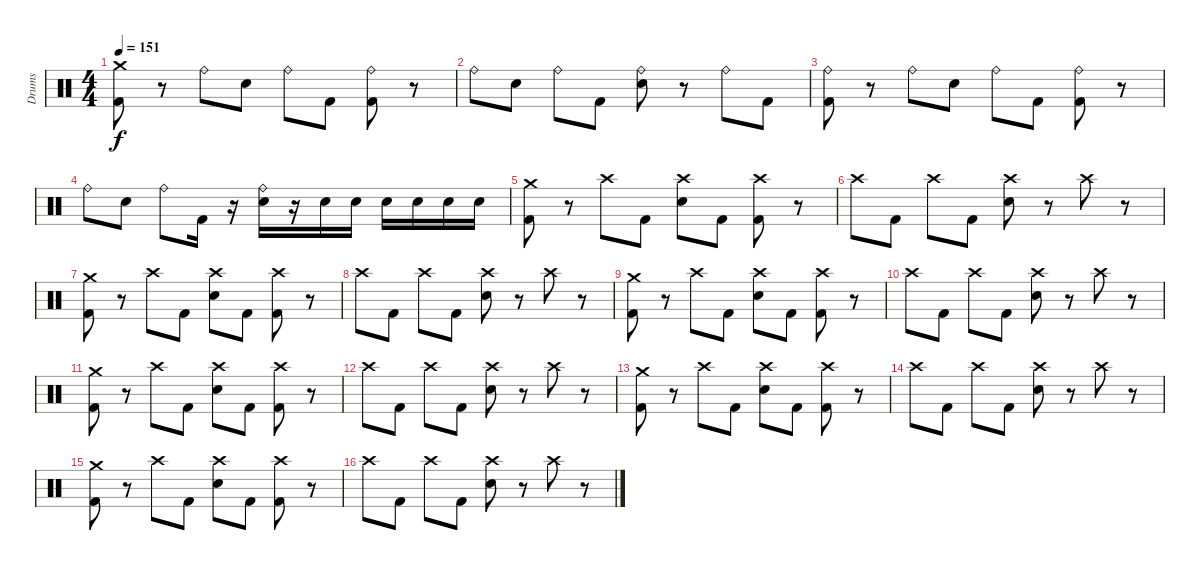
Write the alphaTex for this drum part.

\track ("Drums" "Drums") {instrument percussion}
\staff {score}
\articulation defaults
\ts (4 4)
\tempo 151
\clef neutral
\ks c
("Crash medium (hit)" "Kick (hit) 2").8{dy f} r.8 "Ride (bell)".8 "Snare (hit) 2".8 "Ride (bell)".8 "Kick (hit) 2".8 ("Ride (bell)" "Kick (hit) 2").8 r.8 |
"Ride (bell)".8 "Snare (hit) 2".8 "Ride (bell)".8 "Kick (hit) 2".8 ("Ride (bell)" "Snare (hit) 2").8 r.8 "Ride (bell)".8 "Kick (hit) 2".8 |
("Ride (bell)" "Kick (hit) 2").8 r.8 "Ride (bell)".8 "Snare (hit) 2".8 "Ride (bell)".8 "Kick (hit) 2".8 ("Ride (bell)" "Kick (hit) 2").8 r.8 |
"Ride (bell)".8 "Snare (hit) 2".8 "Ride (bell)".8 "Kick (hit) 2".16 r.16 ("Ride (bell)" "Snare (hit) 2").16 r.16 "Snare (hit) 2".16 "Snare (hit) 2".16 "Snare (hit) 2".16 "Snare (hit) 2".16 "Snare (hit) 2".16 "Snare (hit) 2".16 |
("Crash medium (hit)" "Kick (hit) 2").8 r.8 "Crash high (hit)".8 "Kick (hit) 2".8 ("Crash high (hit)" "Snare (hit) 2").8 "Kick (hit) 2".8 ("Crash high (hit)" "Kick (hit) 2").8 r.8 |
"Crash high (hit)".8 "Kick (hit) 2".8 "Crash high (hit)".8 "Kick (hit) 2".8 ("Crash high (hit)" "Snare (hit) 2").8 r.8 "Crash high (hit)".8 r.8 |
("Crash medium (hit)" "Kick (hit) 2").8 r.8 "Crash high (hit)".8 "Kick (hit) 2".8 ("Crash high (hit)" "Snare (hit) 2").8 "Kick (hit) 2".8 ("Crash high (hit)" "Kick (hit) 2").8 r.8 |
"Crash high (hit)".8 "Kick (hit) 2".8 "Crash high (hit)".8 "Kick (hit) 2".8 ("Crash high (hit)" "Snare (hit) 2").8 r.8 "Crash high (hit)".8 r.8 |
("Crash medium (hit)" "Kick (hit) 2").8 r.8 "Crash high (hit)".8 "Kick (hit) 2".8 ("Crash high (hit)" "Snare (hit) 2").8 "Kick (hit) 2".8 ("Crash high (hit)" "Kick (hit) 2").8 r.8 |
"Crash high (hit)".8 "Kick (hit) 2".8 "Crash high (hit)".8 "Kick (hit) 2".8 ("Crash high (hit)" "Snare (hit) 2").8 r.8 "Crash high (hit)".8 r.8 |
("Crash medium (hit)" "Kick (hit) 2").8 r.8 "Crash high (hit)".8 "Kick (hit) 2".8 ("Crash high (hit)" "Snare (hit) 2").8 "Kick (hit) 2".8 ("Crash high (hit)" "Kick (hit) 2").8 r.8 |
"Crash high (hit)".8 "Kick (hit) 2".8 "Crash high (hit)".8 "Kick (hit) 2".8 ("Crash high (hit)" "Snare (hit) 2").8 r.8 "Crash high (hit)".8 r.8 |
("Crash medium (hit)" "Kick (hit) 2").8 r.8 "Crash high (hit)".8 "Kick (hit) 2".8 ("Crash high (hit)" "Snare (hit) 2").8 "Kick (hit) 2".8 ("Crash high (hit)" "Kick (hit) 2").8 r.8 |
"Crash high (hit)".8 "Kick (hit) 2".8 "Crash high (hit)".8 "Kick (hit) 2".8 ("Crash high (hit)" "Snare (hit) 2").8 r.8 "Crash high (hit)".8 r.8 |
("Crash medium (hit)" "Kick (hit) 2").8 r.8 "Crash high (hit)".8 "Kick (hit) 2".8 ("Crash high (hit)" "Snare (hit) 2").8 "Kick (hit) 2".8 ("Crash high (hit)" "Kick (hit) 2").8 r.8 |
"Crash high (hit)".8 "Kick (hit) 2".8 "Crash high (hit)".8 "Kick (hit) 2".8 ("Crash high (hit)" "Snare (hit) 2").8 r.8 "Crash high (hit)".8 r.8
